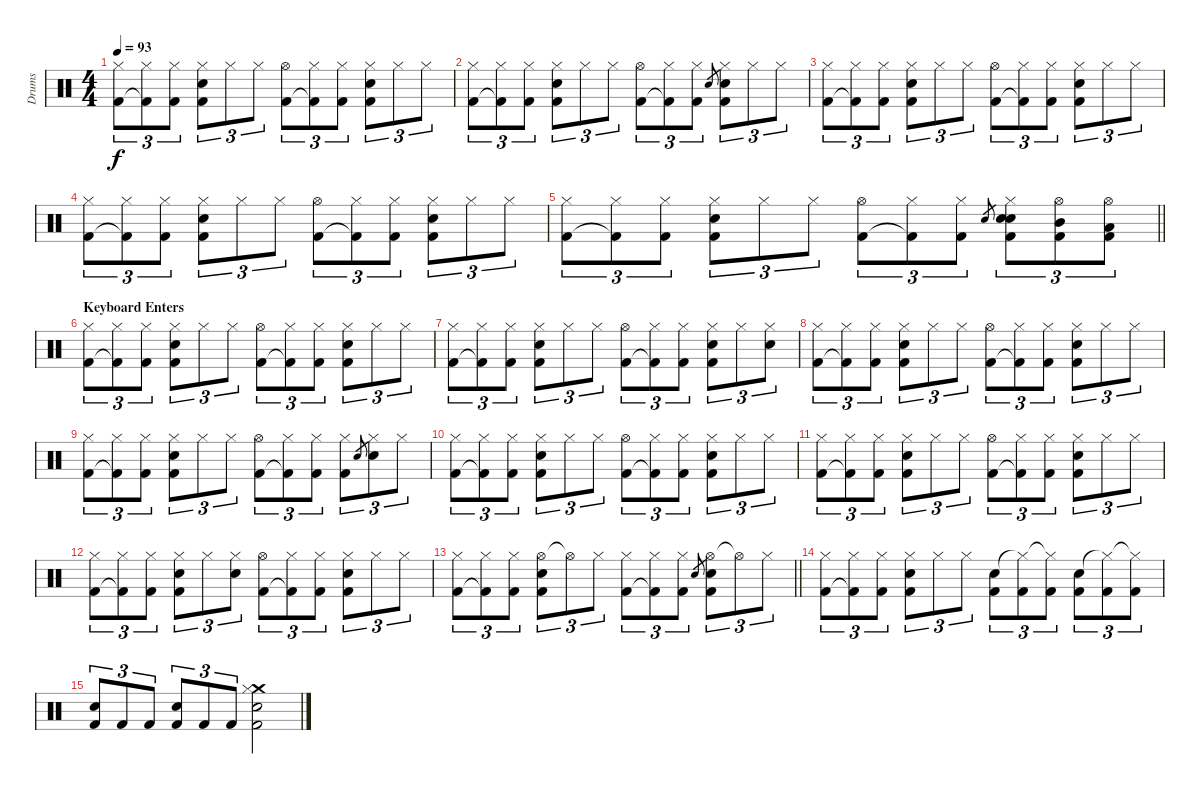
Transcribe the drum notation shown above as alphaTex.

\track ("Drums" "Drums") {instrument percussion}
\staff {score}
\articulation defaults
\ts (4 4)
\tempo 93
\clef neutral
\ks c
("Hi-Hat (closed)" "Kick (hit) 2").8{tu (3 2) dy f} ("Hi-Hat (closed)" "Kick (hit) 2"{t}).8{tu (3 2)} ("Hi-Hat (closed)" "Kick (hit) 2").8{tu (3 2)} ("Hi-Hat (closed)" "Snare (hit) 2" "Kick (hit) 2").8{tu (3 2)} "Hi-Hat (closed)".8{tu (3 2)} "Hi-Hat (closed)".8{tu (3 2)} ("Hi-Hat (open)" "Kick (hit) 2").8{tu (3 2)} ("Hi-Hat (closed)" "Kick (hit) 2"{t}).8{tu (3 2)} ("Hi-Hat (closed)" "Kick (hit) 2").8{tu (3 2)} ("Hi-Hat (closed)" "Snare (hit) 2" "Kick (hit) 2").8{tu (3 2)} "Hi-Hat (closed)".8{tu (3 2)} "Hi-Hat (closed)".8{tu (3 2)} |
("Hi-Hat (closed)" "Kick (hit) 2").8{tu (3 2)} ("Hi-Hat (closed)" "Kick (hit) 2"{t}).8{tu (3 2)} ("Hi-Hat (closed)" "Kick (hit) 2").8{tu (3 2)} ("Hi-Hat (closed)" "Snare (hit) 2" "Kick (hit) 2").8{tu (3 2)} "Hi-Hat (closed)".8{tu (3 2)} "Hi-Hat (closed)".8{tu (3 2)} ("Hi-Hat (open)" "Kick (hit) 2").8{tu (3 2)} ("Hi-Hat (closed)" "Kick (hit) 2"{t}).8{tu (3 2)} ("Hi-Hat (closed)" "Kick (hit) 2").8{tu (3 2)} "Snare (hit) 2".8{gr} ("Hi-Hat (closed)" "Snare (hit) 2" "Kick (hit) 2").8{tu (3 2)} "Hi-Hat (closed)".8{tu (3 2)} "Hi-Hat (closed)".8{tu (3 2)} |
("Hi-Hat (closed)" "Kick (hit) 2").8{tu (3 2)} ("Hi-Hat (closed)" "Kick (hit) 2"{t}).8{tu (3 2)} ("Hi-Hat (closed)" "Kick (hit) 2").8{tu (3 2)} ("Hi-Hat (closed)" "Snare (hit) 2" "Kick (hit) 2").8{tu (3 2)} "Hi-Hat (closed)".8{tu (3 2)} "Hi-Hat (closed)".8{tu (3 2)} ("Hi-Hat (open)" "Kick (hit) 2").8{tu (3 2)} ("Hi-Hat (closed)" "Kick (hit) 2"{t}).8{tu (3 2)} ("Hi-Hat (closed)" "Kick (hit) 2").8{tu (3 2)} ("Hi-Hat (closed)" "Snare (hit) 2" "Kick (hit) 2").8{tu (3 2)} "Hi-Hat (closed)".8{tu (3 2)} "Hi-Hat (closed)".8{tu (3 2)} |
("Hi-Hat (closed)" "Kick (hit) 2").8{tu (3 2)} ("Hi-Hat (closed)" "Kick (hit) 2"{t}).8{tu (3 2)} ("Hi-Hat (closed)" "Kick (hit) 2").8{tu (3 2)} ("Hi-Hat (closed)" "Snare (hit) 2" "Kick (hit) 2").8{tu (3 2)} "Hi-Hat (closed)".8{tu (3 2)} "Hi-Hat (closed)".8{tu (3 2)} ("Hi-Hat (open)" "Kick (hit) 2").8{tu (3 2)} ("Hi-Hat (closed)" "Kick (hit) 2"{t}).8{tu (3 2)} ("Hi-Hat (closed)" "Kick (hit) 2").8{tu (3 2)} ("Hi-Hat (closed)" "Snare (hit) 2" "Kick (hit) 2").8{tu (3 2)} "Hi-Hat (closed)".8{tu (3 2)} "Hi-Hat (closed)".8{tu (3 2)} |
\barLineRight lightlight
("Hi-Hat (closed)" "Kick (hit) 2").8{tu (3 2)} ("Hi-Hat (closed)" "Kick (hit) 2"{t}).8{tu (3 2)} ("Hi-Hat (closed)" "Kick (hit) 2").8{tu (3 2)} ("Hi-Hat (closed)" "Snare (hit) 2" "Kick (hit) 2").8{tu (3 2)} "Hi-Hat (closed)".8{tu (3 2)} "Hi-Hat (closed)".8{tu (3 2)} ("Hi-Hat (open)" "Kick (hit) 2").8{tu (3 2)} ("Hi-Hat (closed)" "Kick (hit) 2"{t}).8{tu (3 2)} ("Hi-Hat (closed)" "Kick (hit) 2").8{tu (3 2)} "Snare (hit) 2".8{gr} ("Hi-Hat (closed)" "Snare (hit) 2" "Snare (hit) 2" "Kick (hit) 2").8{tu (3 2)} ("Hi-Hat (open)" "Mid Tom (hit)" "Kick (hit) 2").8{tu (3 2)} ("Hi-Hat (open)" "Low Floor Tom (hit)" "Kick (hit) 2").8{tu (3 2)} |
\section ("" "Keyboard Enters")
("Hi-Hat (closed)" "Kick (hit) 2").8{tu (3 2)} ("Hi-Hat (closed)" "Kick (hit) 2"{t}).8{tu (3 2)} ("Hi-Hat (closed)" "Kick (hit) 2").8{tu (3 2)} ("Hi-Hat (closed)" "Snare (hit) 2" "Kick (hit) 2").8{tu (3 2)} "Hi-Hat (closed)".8{tu (3 2)} "Hi-Hat (closed)".8{tu (3 2)} ("Hi-Hat (open)" "Kick (hit) 2").8{tu (3 2)} ("Hi-Hat (closed)" "Kick (hit) 2"{t}).8{tu (3 2)} ("Hi-Hat (closed)" "Kick (hit) 2").8{tu (3 2)} ("Hi-Hat (closed)" "Snare (hit) 2" "Kick (hit) 2").8{tu (3 2)} "Hi-Hat (closed)".8{tu (3 2)} "Hi-Hat (closed)".8{tu (3 2)} |
("Hi-Hat (closed)" "Kick (hit) 2").8{tu (3 2)} ("Hi-Hat (closed)" "Kick (hit) 2"{t}).8{tu (3 2)} ("Hi-Hat (closed)" "Kick (hit) 2").8{tu (3 2)} ("Hi-Hat (closed)" "Snare (hit) 2" "Kick (hit) 2").8{tu (3 2)} "Hi-Hat (closed)".8{tu (3 2)} "Hi-Hat (closed)".8{tu (3 2)} ("Hi-Hat (open)" "Kick (hit) 2").8{tu (3 2)} ("Hi-Hat (closed)" "Kick (hit) 2"{t}).8{tu (3 2)} ("Hi-Hat (closed)" "Kick (hit) 2").8{tu (3 2)} ("Hi-Hat (closed)" "Snare (hit) 2" "Kick (hit) 2").8{tu (3 2)} "Hi-Hat (closed)".8{tu (3 2)} ("Hi-Hat (closed)" "Snare (hit) 2").8{tu (3 2)} |
("Hi-Hat (closed)" "Kick (hit) 2").8{tu (3 2)} ("Hi-Hat (closed)" "Kick (hit) 2"{t}).8{tu (3 2)} ("Hi-Hat (closed)" "Kick (hit) 2").8{tu (3 2)} ("Hi-Hat (closed)" "Snare (hit) 2" "Kick (hit) 2").8{tu (3 2)} "Hi-Hat (closed)".8{tu (3 2)} "Hi-Hat (closed)".8{tu (3 2)} ("Hi-Hat (open)" "Kick (hit) 2").8{tu (3 2)} ("Hi-Hat (closed)" "Kick (hit) 2"{t}).8{tu (3 2)} ("Hi-Hat (closed)" "Kick (hit) 2").8{tu (3 2)} ("Hi-Hat (closed)" "Snare (hit) 2" "Kick (hit) 2").8{tu (3 2)} "Hi-Hat (closed)".8{tu (3 2)} "Hi-Hat (closed)".8{tu (3 2)} |
("Hi-Hat (closed)" "Kick (hit) 2").8{tu (3 2)} ("Hi-Hat (closed)" "Kick (hit) 2"{t}).8{tu (3 2)} ("Hi-Hat (closed)" "Kick (hit) 2").8{tu (3 2)} ("Hi-Hat (closed)" "Snare (hit) 2" "Kick (hit) 2").8{tu (3 2)} "Hi-Hat (closed)".8{tu (3 2)} "Hi-Hat (closed)".8{tu (3 2)} ("Hi-Hat (open)" "Kick (hit) 2").8{tu (3 2)} ("Hi-Hat (closed)" "Kick (hit) 2"{t}).8{tu (3 2)} ("Hi-Hat (closed)" "Kick (hit) 2").8{tu (3 2)} ("Hi-Hat (closed)" "Kick (hit) 2").8{tu (3 2)} "Snare (hit) 2".8{gr} ("Hi-Hat (closed)" "Snare (hit) 2").8{tu (3 2)} "Hi-Hat (closed)".8{tu (3 2)} |
("Hi-Hat (closed)" "Kick (hit) 2").8{tu (3 2)} ("Hi-Hat (closed)" "Kick (hit) 2"{t}).8{tu (3 2)} ("Hi-Hat (closed)" "Kick (hit) 2").8{tu (3 2)} ("Hi-Hat (closed)" "Snare (hit) 2" "Kick (hit) 2").8{tu (3 2)} "Hi-Hat (closed)".8{tu (3 2)} "Hi-Hat (closed)".8{tu (3 2)} ("Hi-Hat (open)" "Kick (hit) 2").8{tu (3 2)} ("Hi-Hat (closed)" "Kick (hit) 2"{t}).8{tu (3 2)} ("Hi-Hat (closed)" "Kick (hit) 2").8{tu (3 2)} ("Hi-Hat (closed)" "Snare (hit) 2" "Kick (hit) 2").8{tu (3 2)} "Hi-Hat (closed)".8{tu (3 2)} "Hi-Hat (closed)".8{tu (3 2)} |
("Hi-Hat (closed)" "Kick (hit) 2").8{tu (3 2)} ("Hi-Hat (closed)" "Kick (hit) 2"{t}).8{tu (3 2)} ("Hi-Hat (closed)" "Kick (hit) 2").8{tu (3 2)} ("Hi-Hat (closed)" "Snare (hit) 2" "Kick (hit) 2").8{tu (3 2)} "Hi-Hat (closed)".8{tu (3 2)} "Hi-Hat (closed)".8{tu (3 2)} ("Hi-Hat (open)" "Kick (hit) 2").8{tu (3 2)} ("Hi-Hat (closed)" "Kick (hit) 2"{t}).8{tu (3 2)} ("Hi-Hat (closed)" "Kick (hit) 2").8{tu (3 2)} ("Hi-Hat (closed)" "Snare (hit) 2" "Kick (hit) 2").8{tu (3 2)} "Hi-Hat (closed)".8{tu (3 2)} "Hi-Hat (closed)".8{tu (3 2)} |
("Hi-Hat (closed)" "Kick (hit) 2").8{tu (3 2)} ("Hi-Hat (closed)" "Kick (hit) 2"{t}).8{tu (3 2)} ("Hi-Hat (closed)" "Kick (hit) 2").8{tu (3 2)} ("Hi-Hat (closed)" "Snare (hit) 2" "Kick (hit) 2").8{tu (3 2)} "Hi-Hat (closed)".8{tu (3 2)} ("Hi-Hat (closed)" "Snare (hit) 2").8{tu (3 2)} ("Hi-Hat (open)" "Kick (hit) 2").8{tu (3 2)} ("Hi-Hat (closed)" "Kick (hit) 2"{t}).8{tu (3 2)} ("Hi-Hat (closed)" "Kick (hit) 2").8{tu (3 2)} ("Hi-Hat (closed)" "Snare (hit) 2" "Kick (hit) 2").8{tu (3 2)} "Hi-Hat (closed)".8{tu (3 2)} "Hi-Hat (closed)".8{tu (3 2)} |
\barLineRight lightlight
("Hi-Hat (closed)" "Kick (hit) 2").8{tu (3 2)} ("Hi-Hat (closed)" "Kick (hit) 2"{t}).8{tu (3 2)} ("Hi-Hat (closed)" "Kick (hit) 2").8{tu (3 2)} ("Hi-Hat (open)" "Snare (hit) 2" "Kick (hit) 2").8{tu (3 2)} "Hi-Hat (open)"{t}.8{tu (3 2)} "Hi-Hat (closed)".8{tu (3 2)} ("Hi-Hat (closed)" "Kick (hit) 2").8{tu (3 2)} ("Hi-Hat (closed)" "Kick (hit) 2"{t}).8{tu (3 2)} ("Hi-Hat (closed)" "Kick (hit) 2").8{tu (3 2)} "Snare (hit) 2".8{gr} ("Hi-Hat (open)" "Snare (hit) 2" "Kick (hit) 2").8{tu (3 2)} "Hi-Hat (open)"{t}.8{tu (3 2)} "Hi-Hat (closed)".8{tu (3 2)} |
("Hi-Hat (closed)" "Kick (hit) 2").8{tu (3 2)} ("Hi-Hat (closed)" "Kick (hit) 2"{t}).8{tu (3 2)} ("Hi-Hat (closed)" "Kick (hit) 2").8{tu (3 2)} ("Hi-Hat (closed)" "Snare (hit) 2" "Kick (hit) 2").8{tu (3 2)} "Hi-Hat (closed)".8{tu (3 2)} "Hi-Hat (closed)".8{tu (3 2)} ("Snare (hit) 2" "Kick (hit) 2").8{tu (3 2)} ("Hi-Hat (closed)"{t} "Kick (hit) 2").8{tu (3 2)} ("Hi-Hat (closed)"{t} "Kick (hit) 2").8{tu (3 2)} ("Snare (hit) 2" "Kick (hit) 2").8{tu (3 2)} ("Hi-Hat (closed)"{t} "Kick (hit) 2").8{tu (3 2)} ("Hi-Hat (closed)"{t} "Kick (hit) 2").8{tu (3 2)} |
("Snare (hit) 2" "Kick (hit) 2").8{tu (3 2)} "Kick (hit) 2".8{tu (3 2)} "Kick (hit) 2".8{tu (3 2)} ("Snare (hit) 2" "Kick (hit) 2").8{tu (3 2)} "Kick (hit) 2".8{tu (3 2)} "Kick (hit) 2".8{tu (3 2)} ("Crash medium (hit)" "Snare (hit) 2" "Hi-Hat (closed)" "Kick (hit) 2").2
